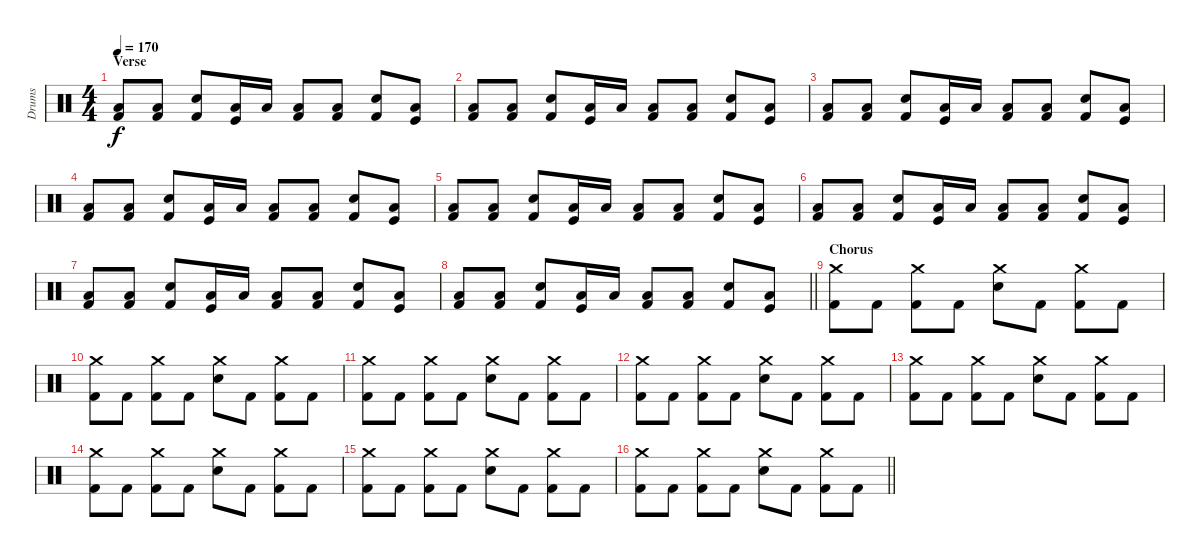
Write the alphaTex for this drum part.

\track ("Drums" "Drums") {instrument percussion}
\staff {score}
\articulation defaults
\ts (4 4)
\section ("" "Verse")
\tempo 170
\clef neutral
\ks c
("Low Tom (hit)" "Kick (hit) 2").8{dy f} ("Low Tom (hit)" "Kick (hit) 2").8 ("Electric Snare (hit)" "Kick (hit) 2").8 ("Low Tom (hit)" "Kick (hit)").16 "Low Tom (hit)".16 ("Low Tom (hit)" "Kick (hit) 2").8 ("Low Tom (hit)" "Kick (hit) 2").8 ("Electric Snare (hit)" "Kick (hit) 2").8 ("Low Tom (hit)" "Kick (hit)").8 |
("Low Tom (hit)" "Kick (hit) 2").8 ("Low Tom (hit)" "Kick (hit) 2").8 ("Electric Snare (hit)" "Kick (hit) 2").8 ("Low Tom (hit)" "Kick (hit)").16 "Low Tom (hit)".16 ("Low Tom (hit)" "Kick (hit) 2").8 ("Low Tom (hit)" "Kick (hit) 2").8 ("Electric Snare (hit)" "Kick (hit) 2").8 ("Low Tom (hit)" "Kick (hit)").8 |
("Low Tom (hit)" "Kick (hit) 2").8 ("Low Tom (hit)" "Kick (hit) 2").8 ("Electric Snare (hit)" "Kick (hit) 2").8 ("Low Tom (hit)" "Kick (hit)").16 "Low Tom (hit)".16 ("Low Tom (hit)" "Kick (hit) 2").8 ("Low Tom (hit)" "Kick (hit) 2").8 ("Electric Snare (hit)" "Kick (hit) 2").8 ("Low Tom (hit)" "Kick (hit)").8 |
("Low Tom (hit)" "Kick (hit) 2").8 ("Low Tom (hit)" "Kick (hit) 2").8 ("Electric Snare (hit)" "Kick (hit) 2").8 ("Low Tom (hit)" "Kick (hit)").16 "Low Tom (hit)".16 ("Low Tom (hit)" "Kick (hit) 2").8 ("Low Tom (hit)" "Kick (hit) 2").8 ("Electric Snare (hit)" "Kick (hit) 2").8 ("Low Tom (hit)" "Kick (hit)").8 |
("Low Tom (hit)" "Kick (hit) 2").8 ("Low Tom (hit)" "Kick (hit) 2").8 ("Electric Snare (hit)" "Kick (hit) 2").8 ("Low Tom (hit)" "Kick (hit)").16 "Low Tom (hit)".16 ("Low Tom (hit)" "Kick (hit) 2").8 ("Low Tom (hit)" "Kick (hit) 2").8 ("Electric Snare (hit)" "Kick (hit) 2").8 ("Low Tom (hit)" "Kick (hit)").8 |
("Low Tom (hit)" "Kick (hit) 2").8 ("Low Tom (hit)" "Kick (hit) 2").8 ("Electric Snare (hit)" "Kick (hit) 2").8 ("Low Tom (hit)" "Kick (hit)").16 "Low Tom (hit)".16 ("Low Tom (hit)" "Kick (hit) 2").8 ("Low Tom (hit)" "Kick (hit) 2").8 ("Electric Snare (hit)" "Kick (hit) 2").8 ("Low Tom (hit)" "Kick (hit)").8 |
("Low Tom (hit)" "Kick (hit) 2").8 ("Low Tom (hit)" "Kick (hit) 2").8 ("Electric Snare (hit)" "Kick (hit) 2").8 ("Low Tom (hit)" "Kick (hit)").16 "Low Tom (hit)".16 ("Low Tom (hit)" "Kick (hit) 2").8 ("Low Tom (hit)" "Kick (hit) 2").8 ("Electric Snare (hit)" "Kick (hit) 2").8 ("Low Tom (hit)" "Kick (hit)").8 |
\barLineRight lightlight
("Low Tom (hit)" "Kick (hit) 2").8 ("Low Tom (hit)" "Kick (hit) 2").8 ("Electric Snare (hit)" "Kick (hit) 2").8 ("Low Tom (hit)" "Kick (hit)").16 "Low Tom (hit)".16 ("Low Tom (hit)" "Kick (hit) 2").8 ("Low Tom (hit)" "Kick (hit) 2").8 ("Electric Snare (hit)" "Kick (hit) 2").8 ("Low Tom (hit)" "Kick (hit)").8 |
\section ("" "Chorus")
("Crash medium (hit)" "Kick (hit) 2").8 "Kick (hit) 2".8 ("Crash medium (hit)" "Kick (hit) 2").8 "Kick (hit) 2".8 ("Electric Snare (hit)" "Crash medium (hit)").8 "Kick (hit) 2".8 ("Crash medium (hit)" "Kick (hit) 2").8 "Kick (hit) 2".8 |
("Crash medium (hit)" "Kick (hit) 2").8 "Kick (hit) 2".8 ("Crash medium (hit)" "Kick (hit) 2").8 "Kick (hit) 2".8 ("Electric Snare (hit)" "Crash medium (hit)").8 "Kick (hit) 2".8 ("Crash medium (hit)" "Kick (hit) 2").8 "Kick (hit) 2".8 |
("Crash medium (hit)" "Kick (hit) 2").8 "Kick (hit) 2".8 ("Crash medium (hit)" "Kick (hit) 2").8 "Kick (hit) 2".8 ("Electric Snare (hit)" "Crash medium (hit)").8 "Kick (hit) 2".8 ("Crash medium (hit)" "Kick (hit) 2").8 "Kick (hit) 2".8 |
("Crash medium (hit)" "Kick (hit) 2").8 "Kick (hit) 2".8 ("Crash medium (hit)" "Kick (hit) 2").8 "Kick (hit) 2".8 ("Electric Snare (hit)" "Crash medium (hit)").8 "Kick (hit) 2".8 ("Crash medium (hit)" "Kick (hit) 2").8 "Kick (hit) 2".8 |
("Crash medium (hit)" "Kick (hit) 2").8 "Kick (hit) 2".8 ("Crash medium (hit)" "Kick (hit) 2").8 "Kick (hit) 2".8 ("Electric Snare (hit)" "Crash medium (hit)").8 "Kick (hit) 2".8 ("Crash medium (hit)" "Kick (hit) 2").8 "Kick (hit) 2".8 |
("Crash medium (hit)" "Kick (hit) 2").8 "Kick (hit) 2".8 ("Crash medium (hit)" "Kick (hit) 2").8 "Kick (hit) 2".8 ("Electric Snare (hit)" "Crash medium (hit)").8 "Kick (hit) 2".8 ("Crash medium (hit)" "Kick (hit) 2").8 "Kick (hit) 2".8 |
("Crash medium (hit)" "Kick (hit) 2").8 "Kick (hit) 2".8 ("Crash medium (hit)" "Kick (hit) 2").8 "Kick (hit) 2".8 ("Electric Snare (hit)" "Crash medium (hit)").8 "Kick (hit) 2".8 ("Crash medium (hit)" "Kick (hit) 2").8 "Kick (hit) 2".8 |
\barLineRight lightlight
("Crash medium (hit)" "Kick (hit) 2").8 "Kick (hit) 2".8 ("Crash medium (hit)" "Kick (hit) 2").8 "Kick (hit) 2".8 ("Electric Snare (hit)" "Crash medium (hit)").8 "Kick (hit) 2".8 ("Crash medium (hit)" "Kick (hit) 2").8 "Kick (hit) 2".8
